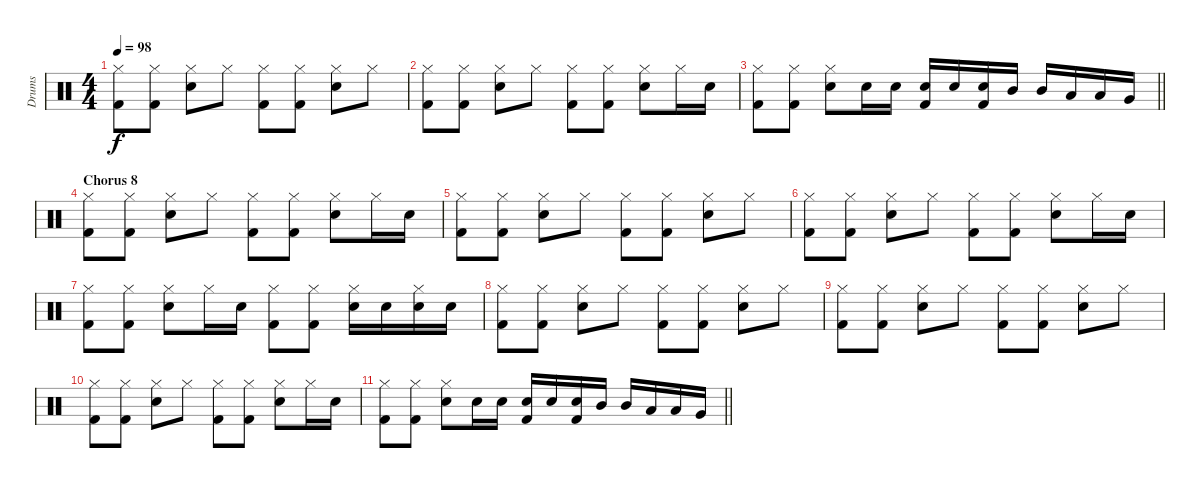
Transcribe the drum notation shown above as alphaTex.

\track ("Drums" "Drums") {instrument percussion}
\staff {score}
\articulation defaults
\ts (4 4)
\tempo 98
\clef neutral
\ks c
("Hi-Hat (closed)" "Kick (hit) 2").8{dy f} ("Hi-Hat (closed)" "Kick (hit) 2").8 ("Hi-Hat (closed)" "Electric Snare (hit)").8 "Hi-Hat (closed)".8 ("Hi-Hat (closed)" "Kick (hit) 2").8 ("Hi-Hat (closed)" "Kick (hit) 2").8 ("Hi-Hat (closed)" "Electric Snare (hit)").8 "Hi-Hat (closed)".8 |
("Hi-Hat (closed)" "Kick (hit) 2").8 ("Hi-Hat (closed)" "Kick (hit) 2").8 ("Hi-Hat (closed)" "Electric Snare (hit)").8 "Hi-Hat (closed)".8 ("Hi-Hat (closed)" "Kick (hit) 2").8 ("Hi-Hat (closed)" "Kick (hit) 2").8 ("Hi-Hat (closed)" "Electric Snare (hit)").8 "Hi-Hat (closed)".16 "Electric Snare (hit)".16 |
\barLineRight lightlight
("Hi-Hat (closed)" "Kick (hit) 2").8 ("Hi-Hat (closed)" "Kick (hit) 2").8 ("Hi-Hat (closed)" "Electric Snare (hit)").8 "Electric Snare (hit)".16 "Electric Snare (hit)".16 ("Electric Snare (hit)" "Kick (hit) 2").16 "Electric Snare (hit)".16 ("Electric Snare (hit)" "Kick (hit) 2").16 "Mid Tom (hit)".16 "Mid Tom (hit)".16 "Low Tom (hit)".16 "Low Tom (hit)".16 "Very Low Tom (hit)".16 |
\section ("" "Chorus 8")
("Hi-Hat (closed)" "Kick (hit) 2").8 ("Hi-Hat (closed)" "Kick (hit) 2").8 ("Hi-Hat (closed)" "Electric Snare (hit)").8 "Hi-Hat (closed)".8 ("Hi-Hat (closed)" "Kick (hit) 2").8 ("Hi-Hat (closed)" "Kick (hit) 2").8 ("Hi-Hat (closed)" "Electric Snare (hit)").8 "Hi-Hat (closed)".16 "Electric Snare (hit)".16 |
("Hi-Hat (closed)" "Kick (hit) 2").8 ("Hi-Hat (closed)" "Kick (hit) 2").8 ("Hi-Hat (closed)" "Electric Snare (hit)").8 "Hi-Hat (closed)".8 ("Hi-Hat (closed)" "Kick (hit) 2").8 ("Hi-Hat (closed)" "Kick (hit) 2").8 ("Hi-Hat (closed)" "Electric Snare (hit)").8 "Hi-Hat (closed)".8 |
("Hi-Hat (closed)" "Kick (hit) 2").8 ("Hi-Hat (closed)" "Kick (hit) 2").8 ("Hi-Hat (closed)" "Electric Snare (hit)").8 "Hi-Hat (closed)".8 ("Hi-Hat (closed)" "Kick (hit) 2").8 ("Hi-Hat (closed)" "Kick (hit) 2").8 ("Hi-Hat (closed)" "Electric Snare (hit)").8 "Hi-Hat (closed)".16 "Electric Snare (hit)".16 |
("Hi-Hat (closed)" "Kick (hit) 2").8 ("Hi-Hat (closed)" "Kick (hit) 2").8 ("Hi-Hat (closed)" "Electric Snare (hit)").8 "Hi-Hat (closed)".16 "Electric Snare (hit)".16 ("Hi-Hat (closed)" "Kick (hit) 2").8 ("Hi-Hat (closed)" "Kick (hit) 2").8 ("Hi-Hat (closed)" "Electric Snare (hit)").16 "Electric Snare (hit)".16 ("Hi-Hat (closed)" "Electric Snare (hit)").16 "Electric Snare (hit)".16 |
("Hi-Hat (closed)" "Kick (hit) 2").8 ("Hi-Hat (closed)" "Kick (hit) 2").8 ("Hi-Hat (closed)" "Electric Snare (hit)").8 "Hi-Hat (closed)".8 ("Hi-Hat (closed)" "Kick (hit) 2").8 ("Hi-Hat (closed)" "Kick (hit) 2").8 ("Hi-Hat (closed)" "Electric Snare (hit)").8 "Hi-Hat (closed)".8 |
("Hi-Hat (closed)" "Kick (hit) 2").8 ("Hi-Hat (closed)" "Kick (hit) 2").8 ("Hi-Hat (closed)" "Electric Snare (hit)").8 "Hi-Hat (closed)".8 ("Hi-Hat (closed)" "Kick (hit) 2").8 ("Hi-Hat (closed)" "Kick (hit) 2").8 ("Hi-Hat (closed)" "Electric Snare (hit)").8 "Hi-Hat (closed)".8 |
("Hi-Hat (closed)" "Kick (hit) 2").8 ("Hi-Hat (closed)" "Kick (hit) 2").8 ("Hi-Hat (closed)" "Electric Snare (hit)").8 "Hi-Hat (closed)".8 ("Hi-Hat (closed)" "Kick (hit) 2").8 ("Hi-Hat (closed)" "Kick (hit) 2").8 ("Hi-Hat (closed)" "Electric Snare (hit)").8 "Hi-Hat (closed)".16 "Electric Snare (hit)".16 |
\barLineRight lightlight
("Hi-Hat (closed)" "Kick (hit) 2").8 ("Hi-Hat (closed)" "Kick (hit) 2").8 ("Hi-Hat (closed)" "Electric Snare (hit)").8 "Electric Snare (hit)".16 "Electric Snare (hit)".16 ("Electric Snare (hit)" "Kick (hit) 2").16 "Electric Snare (hit)".16 ("Electric Snare (hit)" "Kick (hit) 2").16 "Mid Tom (hit)".16 "Mid Tom (hit)".16 "Low Tom (hit)".16 "Low Tom (hit)".16 "Very Low Tom (hit)".16
